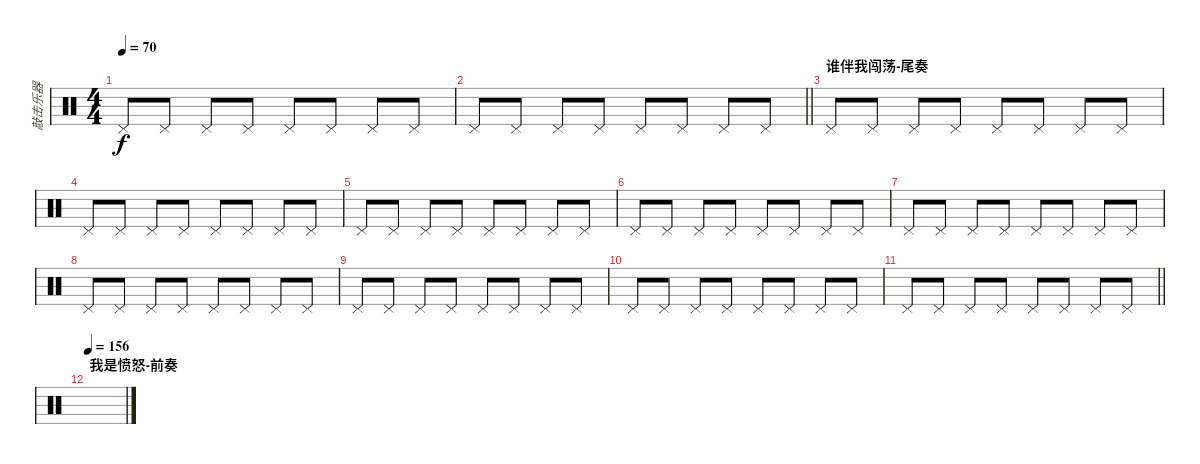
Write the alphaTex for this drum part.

\track ("敲击乐器" "敲击乐器") {instrument percussion}
\staff {score}
\articulation defaults
\ts (4 4)
\tempo 70
\clef neutral
\ks c "Pedal Hi-Hat (hit)".8{dy f} "Pedal Hi-Hat (hit)".8 "Pedal Hi-Hat (hit)".8 "Pedal Hi-Hat (hit)".8 "Pedal Hi-Hat (hit)".8 "Pedal Hi-Hat (hit)".8 "Pedal Hi-Hat (hit)".8 "Pedal Hi-Hat (hit)".8
|
\barLineRight lightlight "Pedal Hi-Hat (hit)".8 "Pedal Hi-Hat (hit)".8 "Pedal Hi-Hat (hit)".8 "Pedal Hi-Hat (hit)".8 "Pedal Hi-Hat (hit)".8 "Pedal Hi-Hat (hit)".8 "Pedal Hi-Hat (hit)".8 "Pedal Hi-Hat (hit)".8
|
\section ("" "谁伴我闯荡-尾奏")
"Pedal Hi-Hat (hit)".8 "Pedal Hi-Hat (hit)".8 "Pedal Hi-Hat (hit)".8 "Pedal Hi-Hat (hit)".8 "Pedal Hi-Hat (hit)".8 "Pedal Hi-Hat (hit)".8 "Pedal Hi-Hat (hit)".8 "Pedal Hi-Hat (hit)".8 |
"Pedal Hi-Hat (hit)".8 "Pedal Hi-Hat (hit)".8 "Pedal Hi-Hat (hit)".8 "Pedal Hi-Hat (hit)".8 "Pedal Hi-Hat (hit)".8 "Pedal Hi-Hat (hit)".8 "Pedal Hi-Hat (hit)".8 "Pedal Hi-Hat (hit)".8 |
"Pedal Hi-Hat (hit)".8 "Pedal Hi-Hat (hit)".8 "Pedal Hi-Hat (hit)".8 "Pedal Hi-Hat (hit)".8 "Pedal Hi-Hat (hit)".8 "Pedal Hi-Hat (hit)".8 "Pedal Hi-Hat (hit)".8 "Pedal Hi-Hat (hit)".8 |
"Pedal Hi-Hat (hit)".8 "Pedal Hi-Hat (hit)".8 "Pedal Hi-Hat (hit)".8 "Pedal Hi-Hat (hit)".8 "Pedal Hi-Hat (hit)".8 "Pedal Hi-Hat (hit)".8 "Pedal Hi-Hat (hit)".8 "Pedal Hi-Hat (hit)".8 |
"Pedal Hi-Hat (hit)".8 "Pedal Hi-Hat (hit)".8 "Pedal Hi-Hat (hit)".8 "Pedal Hi-Hat (hit)".8 "Pedal Hi-Hat (hit)".8 "Pedal Hi-Hat (hit)".8 "Pedal Hi-Hat (hit)".8 "Pedal Hi-Hat (hit)".8 |
"Pedal Hi-Hat (hit)".8 "Pedal Hi-Hat (hit)".8 "Pedal Hi-Hat (hit)".8 "Pedal Hi-Hat (hit)".8 "Pedal Hi-Hat (hit)".8 "Pedal Hi-Hat (hit)".8 "Pedal Hi-Hat (hit)".8 "Pedal Hi-Hat (hit)".8 |
"Pedal Hi-Hat (hit)".8 "Pedal Hi-Hat (hit)".8 "Pedal Hi-Hat (hit)".8 "Pedal Hi-Hat (hit)".8 "Pedal Hi-Hat (hit)".8 "Pedal Hi-Hat (hit)".8 "Pedal Hi-Hat (hit)".8 "Pedal Hi-Hat (hit)".8 |
"Pedal Hi-Hat (hit)".8 "Pedal Hi-Hat (hit)".8 "Pedal Hi-Hat (hit)".8 "Pedal Hi-Hat (hit)".8 "Pedal Hi-Hat (hit)".8 "Pedal Hi-Hat (hit)".8 "Pedal Hi-Hat (hit)".8 "Pedal Hi-Hat (hit)".8 |
\barLineRight lightlight "Pedal Hi-Hat (hit)".8 "Pedal Hi-Hat (hit)".8 "Pedal Hi-Hat (hit)".8 "Pedal Hi-Hat (hit)".8 "Pedal Hi-Hat (hit)".8 "Pedal Hi-Hat (hit)".8 "Pedal Hi-Hat (hit)".8 "Pedal Hi-Hat (hit)".8
|
\section ("" "我是愤怒-前奏")
\tempo 156
